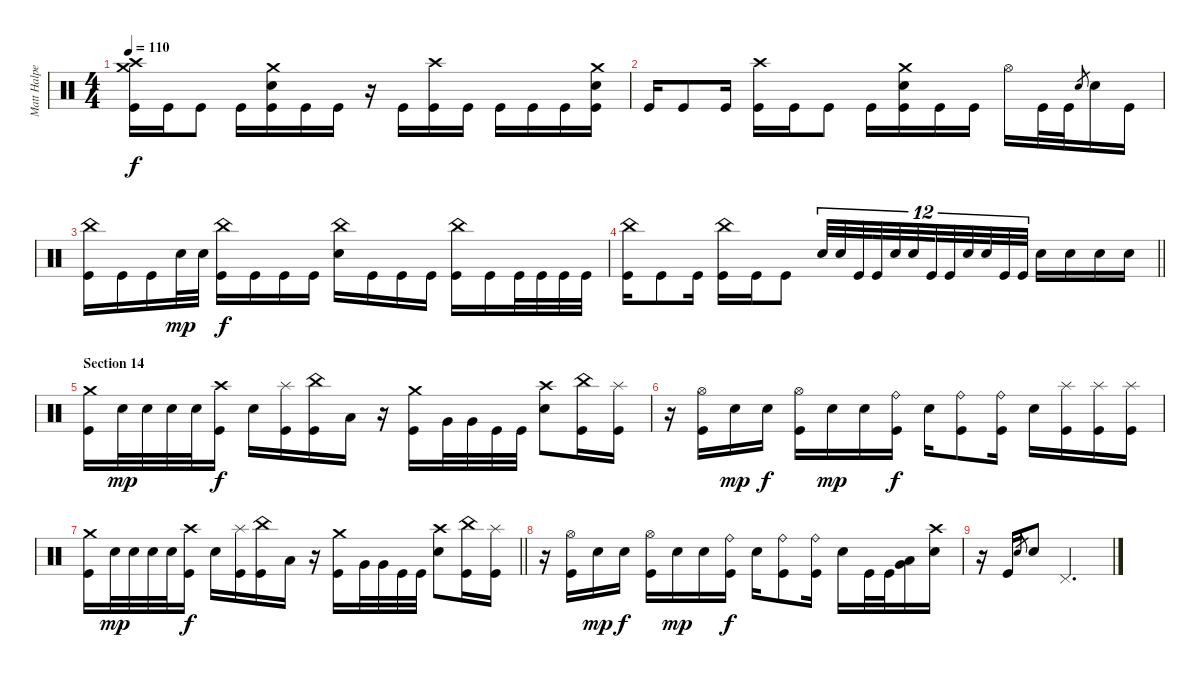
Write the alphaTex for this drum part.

\track ("Matt Halpern" "Matt Halpe") {instrument percussion}
\staff {score}
\articulation defaults
\ts (4 4)
\tempo 110
\clef neutral
\ks c
("Crash high (hit)" "Crash medium (hit)" "Kick (hit)").16{dy f} "Kick (hit)".16 "Kick (hit)".8 "Kick (hit)".16 ("Crash medium (hit)" "Electric Snare (hit)" "Kick (hit)").16 "Kick (hit)".16 "Kick (hit)".16 r.16 "Kick (hit)".16 ("Crash high (hit)" "Kick (hit)").16 "Kick (hit)".16 "Kick (hit)".16 "Kick (hit)".16 "Kick (hit)".16 ("Crash medium (hit)" "Electric Snare (hit)" "Kick (hit)").16 |
"Kick (hit)".16 "Kick (hit)".8 "Kick (hit)".16 ("Crash high (hit)" "Kick (hit)").16 "Kick (hit)".16 "Kick (hit)".8 "Kick (hit)".16 ("Crash medium (hit)" "Electric Snare (hit)" "Kick (hit)").16 "Kick (hit)".16 "Kick (hit)".16 "Hi-Hat (open)".16 "Kick (hit)".32 "Kick (hit)".32 "Electric Snare (hit)".8{gr} "Electric Snare (hit)".16 "Kick (hit)".16 |
("China (hit)" "Kick (hit)").16 "Kick (hit)".16 "Kick (hit)".16 "Electric Snare (hit)".32{dy mp} "Electric Snare (hit)".32 ("China (hit)" "Kick (hit)").16{dy f} "Kick (hit)".16 "Kick (hit)".16 "Kick (hit)".16 ("China (hit)" "Electric Snare (hit)").16 "Kick (hit)".16 "Kick (hit)".16 "Kick (hit)".16 ("China (hit)" "Kick (hit)").16 "Kick (hit)".16 "Kick (hit)".32 "Kick (hit)".32 "Kick (hit)".32 "Kick (hit)".32 |
\barLineRight lightlight
("China (hit)" "Kick (hit)").16 "Kick (hit)".8 "Kick (hit)".16 ("China (hit)" "Kick (hit)").16 "Kick (hit)".16 "Kick (hit)".8 "Electric Snare (hit)".32{tu (12 8)} "Electric Snare (hit)".32{tu (12 8)} "Kick (hit)".32{tu (12 8) beam splitsecondary} "Kick (hit)".32{tu (12 8)} "Electric Snare (hit)".32{tu (12 8)} "Electric Snare (hit)".32{tu (12 8) beam splitsecondary} "Kick (hit)".32{tu (12 8)} "Kick (hit)".32{tu (12 8)} "Electric Snare (hit)".32{tu (12 8) beam splitsecondary} "Electric Snare (hit)".32{tu (12 8)} "Kick (hit)".32{tu (12 8)} "Kick (hit)".32{tu (12 8)} "Electric Snare (hit)".16 "Electric Snare (hit)".16 "Electric Snare (hit)".16 "Electric Snare (hit)".16 |
\section ("" "Section 14")
("Crash medium (hit)" "Kick (hit)").16 "Electric Snare (hit)".32{dy mp} "Electric Snare (hit)".32 "Electric Snare (hit)".32 "Electric Snare (hit)".32 ("Crash high (hit)" "Kick (hit)").16{dy f} "Electric Snare (hit)".16 ("Splash (hit)" "Kick (hit)").16 ("China (hit)" "Kick (hit)").16 "Low Tom (hit)".16 r.16 ("Crash medium (hit)" "Kick (hit)").16 "Very Low Tom (hit)".32 "Very Low Tom (hit)".32 "Kick (hit)".32 "Kick (hit)".32 ("Crash high (hit)" "Electric Snare (hit)").8 ("China (hit)" "Kick (hit)").16 ("Splash (hit)" "Kick (hit)").16 |
r.16 ("Hi-Hat (open)" "Kick (hit)").16 "Electric Snare (hit)".16{dy mp} "Electric Snare (hit)".16{dy f} ("Hi-Hat (open)" "Kick (hit)").16 "Electric Snare (hit)".16{dy mp} "Electric Snare (hit)".16 ("Ride (bell)" "Kick (hit)").16{dy f} "Electric Snare (hit)".16 ("Ride (bell)" "Kick (hit)").8 ("Ride (bell)" "Kick (hit)").16 "Electric Snare (hit)".16 ("Splash (hit)" "Kick (hit)").16 ("Splash (hit)" "Kick (hit)").16 ("Splash (hit)" "Kick (hit)").16 |
\barLineRight lightlight
("Crash medium (hit)" "Kick (hit)").16 "Electric Snare (hit)".32{dy mp} "Electric Snare (hit)".32 "Electric Snare (hit)".32 "Electric Snare (hit)".32 ("Crash high (hit)" "Kick (hit)").16{dy f} "Electric Snare (hit)".16 ("Splash (hit)" "Kick (hit)").16 ("China (hit)" "Kick (hit)").16 "Low Tom (hit)".16 r.16 ("Crash medium (hit)" "Kick (hit)").16 "Very Low Tom (hit)".32 "Very Low Tom (hit)".32 "Kick (hit)".32 "Kick (hit)".32 ("Crash high (hit)" "Electric Snare (hit)").8 ("China (hit)" "Kick (hit)").16 ("Splash (hit)" "Kick (hit)").16 |
r.16 ("Hi-Hat (open)" "Kick (hit)").16 "Electric Snare (hit)".16{dy mp} "Electric Snare (hit)".16{dy f} ("Hi-Hat (open)" "Kick (hit)").16 "Electric Snare (hit)".16{dy mp} "Electric Snare (hit)".16 ("Ride (bell)" "Kick (hit)").16{dy f} "Electric Snare (hit)".16 ("Ride (bell)" "Kick (hit)").8 ("Ride (bell)" "Kick (hit)").16 "Electric Snare (hit)".16 "Kick (hit)".32 "Kick (hit)".32 ("Low Tom (hit)" "Very Low Tom (hit)").16 ("Crash high (hit)" "Electric Snare (hit)").16 |
r.16 "Kick (hit)".16 "Electric Snare (hit)".8{gr} "Electric Snare (hit)".8 "Pedal Hi-Hat (hit)".2{d}
